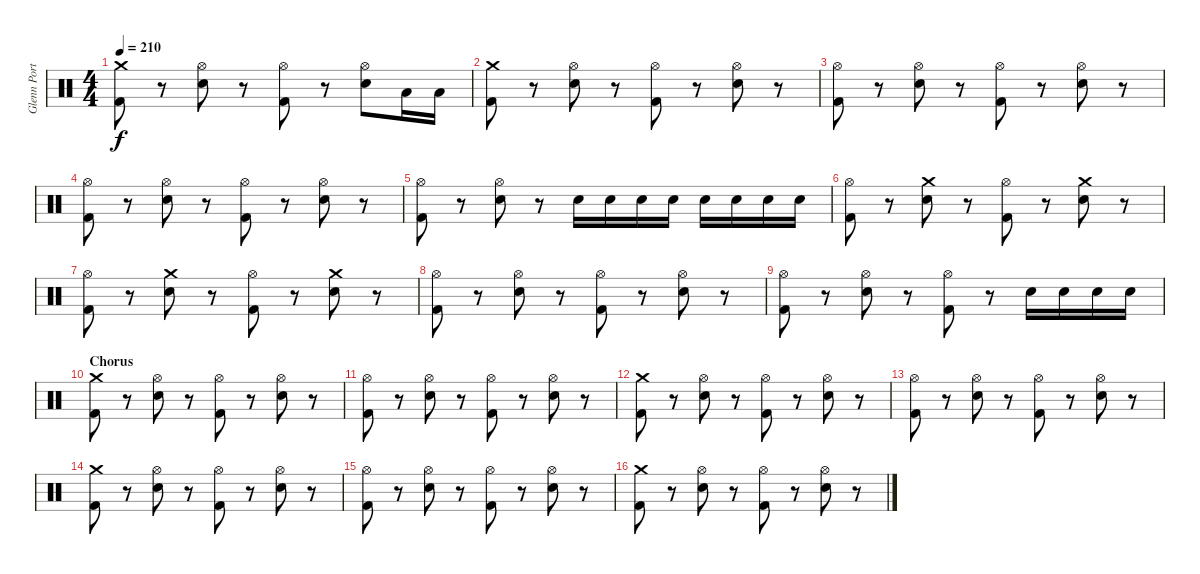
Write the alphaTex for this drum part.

\track ("Glenn Porter - Drums" "Glenn Port") {instrument percussion}
\staff {score}
\articulation defaults
\ts (4 4)
\tempo 210
\clef neutral
\ks c
("Crash medium (hit)" "Kick (hit) 2").8{dy f} r.8 ("Hi-Hat (open)" "Electric Snare (hit)").8 r.8 ("Hi-Hat (open)" "Kick (hit) 2").8 r.8 ("Hi-Hat (open)" "Electric Snare (hit)").8 "Low Tom (hit)".16 "Low Tom (hit)".16 |
("Crash medium (hit)" "Kick (hit) 2").8 r.8 ("Hi-Hat (open)" "Electric Snare (hit)").8 r.8 ("Hi-Hat (open)" "Kick (hit) 2").8 r.8 ("Hi-Hat (open)" "Electric Snare (hit)").8 r.8 |
("Hi-Hat (open)" "Kick (hit) 2").8 r.8 ("Hi-Hat (open)" "Electric Snare (hit)").8 r.8 ("Hi-Hat (open)" "Kick (hit) 2").8 r.8 ("Hi-Hat (open)" "Electric Snare (hit)").8 r.8 |
("Hi-Hat (open)" "Kick (hit) 2").8 r.8 ("Hi-Hat (open)" "Electric Snare (hit)").8 r.8 ("Hi-Hat (open)" "Kick (hit) 2").8 r.8 ("Hi-Hat (open)" "Electric Snare (hit)").8 r.8 |
("Hi-Hat (open)" "Kick (hit) 2").8 r.8 ("Hi-Hat (open)" "Electric Snare (hit)").8 r.8 "Electric Snare (hit)".16 "Electric Snare (hit)".16 "Electric Snare (hit)".16 "Electric Snare (hit)".16 "Electric Snare (hit)".16 "Electric Snare (hit)".16 "Electric Snare (hit)".16 "Electric Snare (hit)".16 |
("Hi-Hat (open)" "Kick (hit) 2").8 r.8 ("Crash medium (hit)" "Electric Snare (hit)").8 r.8 ("Hi-Hat (open)" "Kick (hit) 2").8 r.8 ("Crash medium (hit)" "Electric Snare (hit)").8 r.8 |
("Hi-Hat (open)" "Kick (hit) 2").8 r.8 ("Crash medium (hit)" "Electric Snare (hit)").8 r.8 ("Hi-Hat (open)" "Kick (hit) 2").8 r.8 ("Crash medium (hit)" "Electric Snare (hit)").8 r.8 |
("Hi-Hat (open)" "Kick (hit) 2").8 r.8 ("Hi-Hat (open)" "Electric Snare (hit)").8 r.8 ("Hi-Hat (open)" "Kick (hit) 2").8 r.8 ("Hi-Hat (open)" "Electric Snare (hit)").8 r.8 |
("Hi-Hat (open)" "Kick (hit) 2").8 r.8 ("Hi-Hat (open)" "Electric Snare (hit)").8 r.8 ("Hi-Hat (open)" "Kick (hit) 2").8 r.8 "Electric Snare (hit)".16 "Electric Snare (hit)".16 "Electric Snare (hit)".16 "Electric Snare (hit)".16 |
\section ("" "Chorus")
("Crash medium (hit)" "Kick (hit) 2").8 r.8 ("Hi-Hat (open)" "Electric Snare (hit)").8 r.8 ("Hi-Hat (open)" "Kick (hit) 2").8 r.8 ("Hi-Hat (open)" "Electric Snare (hit)").8 r.8 |
("Hi-Hat (open)" "Kick (hit) 2").8 r.8 ("Hi-Hat (open)" "Electric Snare (hit)").8 r.8 ("Hi-Hat (open)" "Kick (hit) 2").8 r.8 ("Hi-Hat (open)" "Electric Snare (hit)").8 r.8 |
("Crash medium (hit)" "Kick (hit) 2").8 r.8 ("Hi-Hat (open)" "Electric Snare (hit)").8 r.8 ("Hi-Hat (open)" "Kick (hit) 2").8 r.8 ("Hi-Hat (open)" "Electric Snare (hit)").8 r.8 |
("Hi-Hat (open)" "Kick (hit) 2").8 r.8 ("Hi-Hat (open)" "Electric Snare (hit)").8 r.8 ("Hi-Hat (open)" "Kick (hit) 2").8 r.8 ("Hi-Hat (open)" "Electric Snare (hit)").8 r.8 |
("Crash medium (hit)" "Kick (hit) 2").8 r.8 ("Hi-Hat (open)" "Electric Snare (hit)").8 r.8 ("Hi-Hat (open)" "Kick (hit) 2").8 r.8 ("Hi-Hat (open)" "Electric Snare (hit)").8 r.8 |
("Hi-Hat (open)" "Kick (hit) 2").8 r.8 ("Hi-Hat (open)" "Electric Snare (hit)").8 r.8 ("Hi-Hat (open)" "Kick (hit) 2").8 r.8 ("Hi-Hat (open)" "Electric Snare (hit)").8 r.8 |
("Crash medium (hit)" "Kick (hit) 2").8 r.8 ("Hi-Hat (open)" "Electric Snare (hit)").8 r.8 ("Hi-Hat (open)" "Kick (hit) 2").8 r.8 ("Hi-Hat (open)" "Electric Snare (hit)").8 r.8
